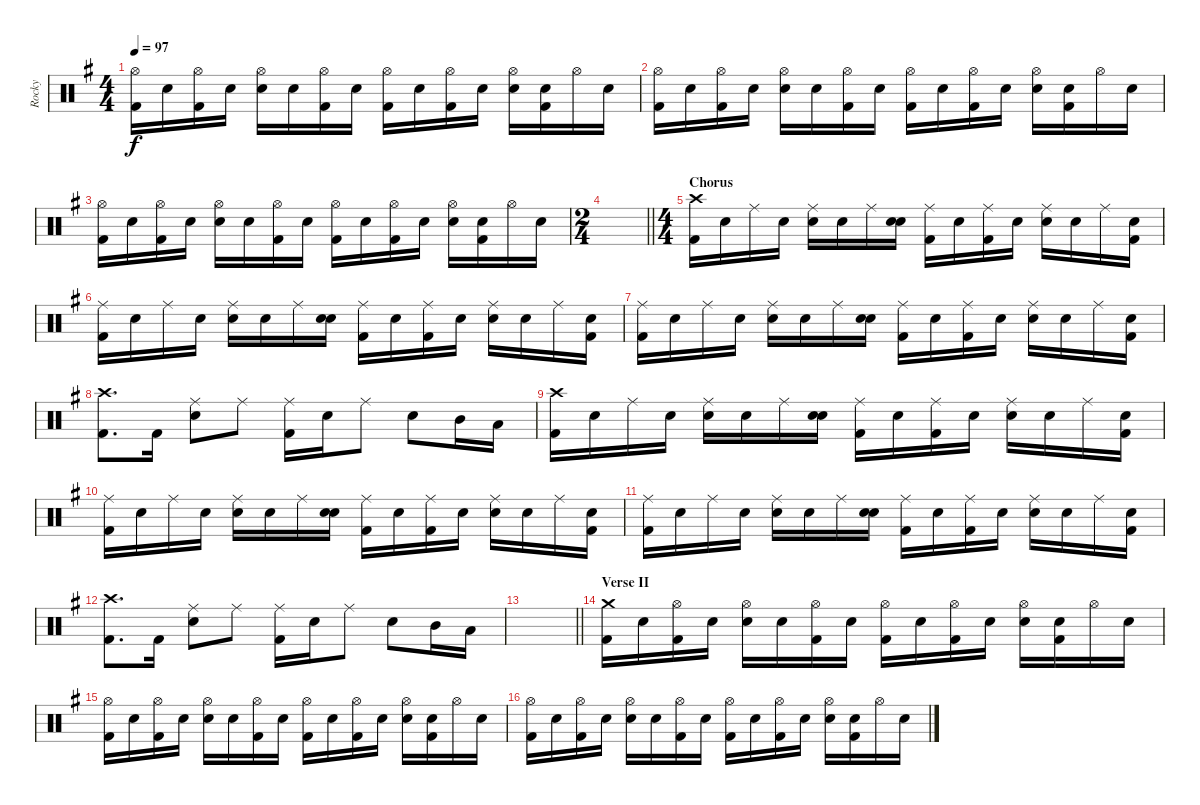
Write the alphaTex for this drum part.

\track ("Rocky" "Rocky") {instrument percussion}
\staff {score}
\articulation defaults
\ts (4 4)
\tempo 97
\clef neutral
\ks g
("Hi-Hat (open)" "Kick (hit) 2").16{dy f} "Snare (hit)".16 ("Hi-Hat (open)" "Kick (hit) 2").16 "Snare (hit)".16 ("Hi-Hat (open)" "Snare (hit) 2").16 "Snare (hit)".16 ("Hi-Hat (open)" "Kick (hit) 2").16 "Snare (hit)".16 ("Hi-Hat (open)" "Kick (hit) 2").16 "Snare (hit)".16 ("Hi-Hat (open)" "Kick (hit) 2").16 "Snare (hit)".16 ("Hi-Hat (open)" "Snare (hit) 2").16 ("Snare (hit)" "Kick (hit) 2").16 "Hi-Hat (open)".16 "Snare (hit)".16 |
("Hi-Hat (open)" "Kick (hit) 2").16 "Snare (hit)".16 ("Hi-Hat (open)" "Kick (hit) 2").16 "Snare (hit)".16 ("Hi-Hat (open)" "Snare (hit) 2").16 "Snare (hit)".16 ("Hi-Hat (open)" "Kick (hit) 2").16 "Snare (hit)".16 ("Hi-Hat (open)" "Kick (hit) 2").16 "Snare (hit)".16 ("Hi-Hat (open)" "Kick (hit) 2").16 "Snare (hit)".16 ("Hi-Hat (open)" "Snare (hit) 2").16 ("Snare (hit)" "Kick (hit) 2").16 "Hi-Hat (open)".16 "Snare (hit)".16 |
("Hi-Hat (open)" "Kick (hit) 2").16 "Snare (hit)".16 ("Hi-Hat (open)" "Kick (hit) 2").16 "Snare (hit)".16 ("Hi-Hat (open)" "Snare (hit) 2").16 "Snare (hit)".16 ("Hi-Hat (open)" "Kick (hit) 2").16 "Snare (hit)".16 ("Hi-Hat (open)" "Kick (hit) 2").16 "Snare (hit)".16 ("Hi-Hat (open)" "Kick (hit) 2").16 "Snare (hit)".16 ("Hi-Hat (open)" "Snare (hit) 2").16 ("Snare (hit)" "Kick (hit) 2").16 "Hi-Hat (open)".16 "Snare (hit)".16 |
\ts (2 4)
\barLineRight lightlight
|
\ts (4 4)
\section ("" "Chorus")
("Crash high (hit)" "Kick (hit) 2").16 "Snare (hit)".16 "Ride (middle)".16 "Snare (hit)".16 ("Ride (middle)" "Snare (hit) 2").16 "Snare (hit)".16 "Ride (middle)".16 ("Snare (hit)" "Snare (hit) 2").16 ("Ride (middle)" "Kick (hit) 2").16 "Snare (hit)".16 ("Ride (middle)" "Kick (hit) 2").16 "Snare (hit)".16 ("Ride (middle)" "Snare (hit) 2").16 "Snare (hit)".16 "Ride (middle)".16 ("Snare (hit)" "Kick (hit) 2").16 |
("Ride (middle)" "Kick (hit) 2").16 "Snare (hit)".16 "Ride (middle)".16 "Snare (hit)".16 ("Ride (middle)" "Snare (hit) 2").16 "Snare (hit)".16 "Ride (middle)".16 ("Snare (hit)" "Snare (hit) 2").16 ("Ride (middle)" "Kick (hit) 2").16 "Snare (hit)".16 ("Ride (middle)" "Kick (hit) 2").16 "Snare (hit)".16 ("Ride (middle)" "Snare (hit) 2").16 "Snare (hit)".16 "Ride (middle)".16 ("Snare (hit)" "Kick (hit) 2").16 |
("Ride (middle)" "Kick (hit) 2").16 "Snare (hit)".16 "Ride (middle)".16 "Snare (hit)".16 ("Ride (middle)" "Snare (hit) 2").16 "Snare (hit)".16 "Ride (middle)".16 ("Snare (hit)" "Snare (hit) 2").16 ("Ride (middle)" "Kick (hit) 2").16 "Snare (hit)".16 ("Ride (middle)" "Kick (hit) 2").16 "Snare (hit)".16 ("Ride (middle)" "Snare (hit) 2").16 "Snare (hit)".16 "Ride (middle)".16 ("Snare (hit)" "Kick (hit) 2").16 |
("Crash high (hit)" "Kick (hit) 2").8{d} "Kick (hit) 2".16 ("Ride (middle)" "Snare (hit) 2").8 "Ride (middle)".8 ("Ride (middle)" "Kick (hit) 2").16 "Snare (hit) 2".16 "Ride (middle)".8 "Snare (hit) 2".8 "Mid Tom (hit)".16 "Low Tom (hit)".16 |
("Crash high (hit)" "Kick (hit) 2").16 "Snare (hit)".16 "Ride (middle)".16 "Snare (hit)".16 ("Ride (middle)" "Snare (hit) 2").16 "Snare (hit)".16 "Ride (middle)".16 ("Snare (hit)" "Snare (hit) 2").16 ("Ride (middle)" "Kick (hit) 2").16 "Snare (hit)".16 ("Ride (middle)" "Kick (hit) 2").16 "Snare (hit)".16 ("Ride (middle)" "Snare (hit) 2").16 "Snare (hit)".16 "Ride (middle)".16 ("Snare (hit)" "Kick (hit) 2").16 |
("Ride (middle)" "Kick (hit) 2").16 "Snare (hit)".16 "Ride (middle)".16 "Snare (hit)".16 ("Ride (middle)" "Snare (hit) 2").16 "Snare (hit)".16 "Ride (middle)".16 ("Snare (hit)" "Snare (hit) 2").16 ("Ride (middle)" "Kick (hit) 2").16 "Snare (hit)".16 ("Ride (middle)" "Kick (hit) 2").16 "Snare (hit)".16 ("Ride (middle)" "Snare (hit) 2").16 "Snare (hit)".16 "Ride (middle)".16 ("Snare (hit)" "Kick (hit) 2").16 |
("Ride (middle)" "Kick (hit) 2").16 "Snare (hit)".16 "Ride (middle)".16 "Snare (hit)".16 ("Ride (middle)" "Snare (hit) 2").16 "Snare (hit)".16 "Ride (middle)".16 ("Snare (hit)" "Snare (hit) 2").16 ("Ride (middle)" "Kick (hit) 2").16 "Snare (hit)".16 ("Ride (middle)" "Kick (hit) 2").16 "Snare (hit)".16 ("Ride (middle)" "Snare (hit) 2").16 "Snare (hit)".16 "Ride (middle)".16 ("Snare (hit)" "Kick (hit) 2").16 |
("Crash high (hit)" "Kick (hit) 2").8{d} "Kick (hit) 2".16 ("Ride (middle)" "Snare (hit) 2").8 "Ride (middle)".8 ("Ride (middle)" "Kick (hit) 2").16 "Snare (hit) 2".16 "Ride (middle)".8 "Snare (hit) 2".8 "Mid Tom (hit)".16 "Low Tom (hit)".16 |
\barLineRight lightlight
|
\section ("" "Verse II")
("Crash medium (hit)" "Kick (hit) 2").16 "Snare (hit)".16 ("Hi-Hat (open)" "Kick (hit) 2").16 "Snare (hit)".16 ("Hi-Hat (open)" "Snare (hit) 2").16 "Snare (hit)".16 ("Hi-Hat (open)" "Kick (hit) 2").16 "Snare (hit)".16 ("Hi-Hat (open)" "Kick (hit) 2").16 "Snare (hit)".16 ("Hi-Hat (open)" "Kick (hit) 2").16 "Snare (hit)".16 ("Hi-Hat (open)" "Snare (hit) 2").16 ("Snare (hit)" "Kick (hit) 2").16 "Hi-Hat (open)".16 "Snare (hit)".16 |
("Hi-Hat (open)" "Kick (hit) 2").16 "Snare (hit)".16 ("Hi-Hat (open)" "Kick (hit) 2").16 "Snare (hit)".16 ("Hi-Hat (open)" "Snare (hit) 2").16 "Snare (hit)".16 ("Hi-Hat (open)" "Kick (hit) 2").16 "Snare (hit)".16 ("Hi-Hat (open)" "Kick (hit) 2").16 "Snare (hit)".16 ("Hi-Hat (open)" "Kick (hit) 2").16 "Snare (hit)".16 ("Hi-Hat (open)" "Snare (hit) 2").16 ("Snare (hit)" "Kick (hit) 2").16 "Hi-Hat (open)".16 "Snare (hit)".16 |
("Hi-Hat (open)" "Kick (hit) 2").16 "Snare (hit)".16 ("Hi-Hat (open)" "Kick (hit) 2").16 "Snare (hit)".16 ("Hi-Hat (open)" "Snare (hit) 2").16 "Snare (hit)".16 ("Hi-Hat (open)" "Kick (hit) 2").16 "Snare (hit)".16 ("Hi-Hat (open)" "Kick (hit) 2").16 "Snare (hit)".16 ("Hi-Hat (open)" "Kick (hit) 2").16 "Snare (hit)".16 ("Hi-Hat (open)" "Snare (hit) 2").16 ("Snare (hit)" "Kick (hit) 2").16 "Hi-Hat (open)".16 "Snare (hit)".16
